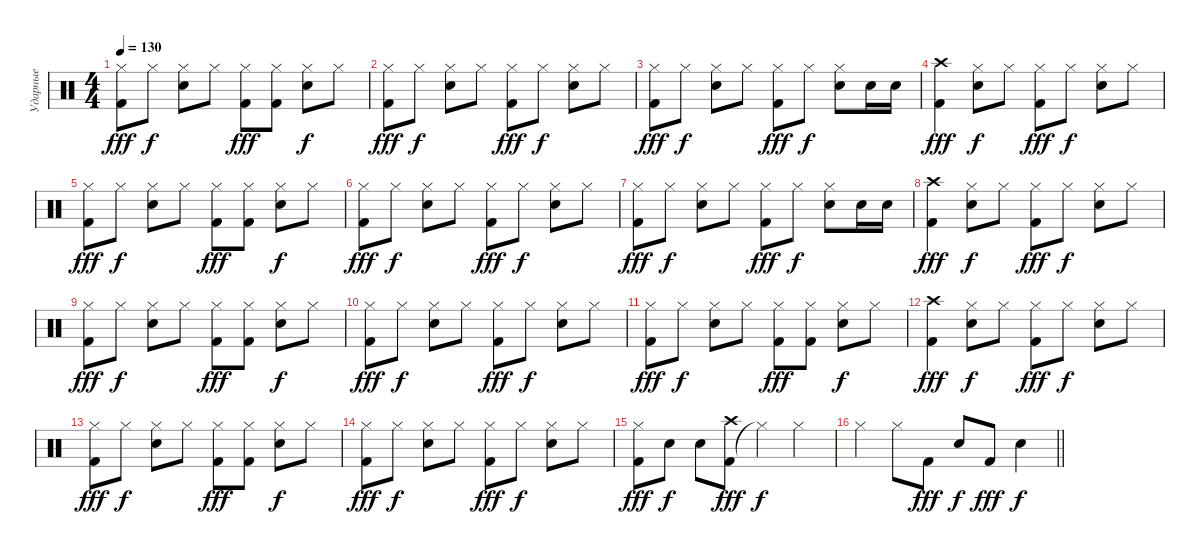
\track ("Ударные" "Ударные") {instrument percussion}
\staff {score}
\articulation defaults
\ts (4 4)
\tempo 130
\clef neutral
\ks c
("Kick (hit) 2" "Hi-Hat (closed)").8{dy fff} "Hi-Hat (closed)".8{dy f} ("Snare (hit) 2" "Hi-Hat (closed)").8 "Hi-Hat (closed)".8 ("Kick (hit) 2" "Hi-Hat (closed)").8{dy fff} ("Kick (hit) 2" "Hi-Hat (closed)").8 ("Snare (hit) 2" "Hi-Hat (closed)").8{dy f} "Hi-Hat (closed)".8 |
("Kick (hit) 2" "Hi-Hat (closed)").8{dy fff} "Hi-Hat (closed)".8{dy f} ("Snare (hit) 2" "Hi-Hat (closed)").8 "Hi-Hat (closed)".8 ("Kick (hit) 2" "Hi-Hat (closed)").8{dy fff} "Hi-Hat (closed)".8{dy f} ("Snare (hit) 2" "Hi-Hat (closed)").8 "Hi-Hat (closed)".8 |
("Kick (hit) 2" "Hi-Hat (closed)").8{dy fff} "Hi-Hat (closed)".8{dy f} ("Snare (hit) 2" "Hi-Hat (closed)").8 "Hi-Hat (closed)".8 ("Kick (hit) 2" "Hi-Hat (closed)").8{dy fff} "Hi-Hat (closed)".8{dy f} ("Snare (hit) 2" "Hi-Hat (closed)").8 "Snare (hit) 2".16 "Snare (hit) 2".16 |
("Kick (hit) 2" "Crash high (hit)").4{dy fff} ("Snare (hit) 2" "Hi-Hat (closed)").8{dy f} "Hi-Hat (closed)".8 ("Kick (hit) 2" "Hi-Hat (closed)").8{dy fff} "Hi-Hat (closed)".8{dy f} ("Snare (hit) 2" "Hi-Hat (closed)").8 "Hi-Hat (closed)".8 |
("Kick (hit) 2" "Hi-Hat (closed)").8{dy fff} "Hi-Hat (closed)".8{dy f} ("Snare (hit) 2" "Hi-Hat (closed)").8 "Hi-Hat (closed)".8 ("Kick (hit) 2" "Hi-Hat (closed)").8{dy fff} ("Kick (hit) 2" "Hi-Hat (closed)").8 ("Snare (hit) 2" "Hi-Hat (closed)").8{dy f} "Hi-Hat (closed)".8 |
("Kick (hit) 2" "Hi-Hat (closed)").8{dy fff} "Hi-Hat (closed)".8{dy f} ("Snare (hit) 2" "Hi-Hat (closed)").8 "Hi-Hat (closed)".8 ("Kick (hit) 2" "Hi-Hat (closed)").8{dy fff} "Hi-Hat (closed)".8{dy f} ("Snare (hit) 2" "Hi-Hat (closed)").8 "Hi-Hat (closed)".8 |
("Kick (hit) 2" "Hi-Hat (closed)").8{dy fff} "Hi-Hat (closed)".8{dy f} ("Snare (hit) 2" "Hi-Hat (closed)").8 "Hi-Hat (closed)".8 ("Kick (hit) 2" "Hi-Hat (closed)").8{dy fff} "Hi-Hat (closed)".8{dy f} ("Snare (hit) 2" "Hi-Hat (closed)").8 "Snare (hit) 2".16 "Snare (hit) 2".16 |
("Kick (hit) 2" "Crash high (hit)").4{dy fff} ("Snare (hit) 2" "Hi-Hat (closed)").8{dy f} "Hi-Hat (closed)".8 ("Kick (hit) 2" "Hi-Hat (closed)").8{dy fff} "Hi-Hat (closed)".8{dy f} ("Snare (hit) 2" "Hi-Hat (closed)").8 "Hi-Hat (closed)".8 |
("Kick (hit) 2" "Hi-Hat (closed)").8{dy fff} "Hi-Hat (closed)".8{dy f} ("Snare (hit) 2" "Hi-Hat (closed)").8 "Hi-Hat (closed)".8 ("Kick (hit) 2" "Hi-Hat (closed)").8{dy fff} ("Kick (hit) 2" "Hi-Hat (closed)").8 ("Snare (hit) 2" "Hi-Hat (closed)").8{dy f} "Hi-Hat (closed)".8 |
("Kick (hit) 2" "Hi-Hat (closed)").8{dy fff} "Hi-Hat (closed)".8{dy f} ("Snare (hit) 2" "Hi-Hat (closed)").8 "Hi-Hat (closed)".8 ("Kick (hit) 2" "Hi-Hat (closed)").8{dy fff} "Hi-Hat (closed)".8{dy f} ("Snare (hit) 2" "Hi-Hat (closed)").8 "Hi-Hat (closed)".8 |
("Kick (hit) 2" "Hi-Hat (closed)").8{dy fff} "Hi-Hat (closed)".8{dy f} ("Snare (hit) 2" "Hi-Hat (closed)").8 "Hi-Hat (closed)".8 ("Kick (hit) 2" "Hi-Hat (closed)").8{dy fff} ("Kick (hit) 2" "Hi-Hat (closed)").8 ("Snare (hit) 2" "Hi-Hat (closed)").8{dy f} "Hi-Hat (closed)".8 |
("Kick (hit) 2" "Crash high (hit)").4{dy fff} ("Snare (hit) 2" "Hi-Hat (closed)").8{dy f} "Hi-Hat (closed)".8 ("Kick (hit) 2" "Hi-Hat (closed)").8{dy fff} "Hi-Hat (closed)".8{dy f} ("Snare (hit) 2" "Hi-Hat (closed)").8 "Hi-Hat (closed)".8 |
("Kick (hit) 2" "Hi-Hat (closed)").8{dy fff} "Hi-Hat (closed)".8{dy f} ("Snare (hit) 2" "Hi-Hat (closed)").8 "Hi-Hat (closed)".8 ("Kick (hit) 2" "Hi-Hat (closed)").8{dy fff} ("Kick (hit) 2" "Hi-Hat (closed)").8 ("Snare (hit) 2" "Hi-Hat (closed)").8{dy f} "Hi-Hat (closed)".8 |
("Kick (hit) 2" "Hi-Hat (closed)").8{dy fff} "Hi-Hat (closed)".8{dy f} ("Snare (hit) 2" "Hi-Hat (closed)").8 "Hi-Hat (closed)".8 ("Kick (hit) 2" "Hi-Hat (closed)").8{dy fff} "Hi-Hat (closed)".8{dy f} ("Snare (hit) 2" "Hi-Hat (closed)").8 "Hi-Hat (closed)".8 |
("Kick (hit) 2" "Hi-Hat (closed)").8{dy fff} "Snare (hit) 2".8{dy f} "Snare (hit) 2".8 ("Kick (hit) 2" "Crash high (hit)").8{dy fff} "Hi-Hat (closed)"{t}.4{dy f} "Hi-Hat (closed)".4 |
\barLineRight lightlight "Hi-Hat (closed)".4 "Hi-Hat (closed)".8 "Kick (hit) 2".8{dy fff} "Snare (hit) 2".8{dy f} "Kick (hit) 2".8{dy fff} "Snare (hit) 2".4{dy f}
